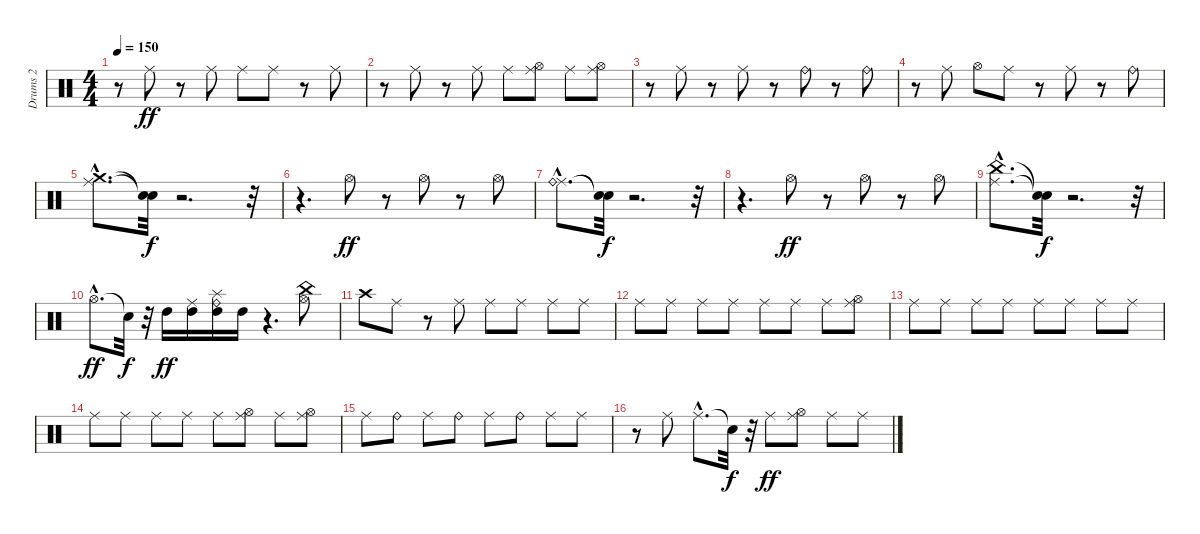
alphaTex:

\track ("Drums 2" "Drums 2") {instrument percussion}
\staff {score}
\articulation defaults
\ts (4 4)
\tempo 150
\clef neutral
\ks c
r.8{dy ff} "Ride (middle)".8 r.8 "Ride (middle)".8 "Ride (middle)".8 "Ride (middle)".8 r.8 "Ride (middle)".8 |
r.8 "Ride (middle)".8 r.8 "Ride (middle)".8 "Ride (middle)".8 ("Hi-Hat (open)" "Ride (middle)").8 "Ride (middle)".8 ("Hi-Hat (open)" "Ride (middle)").8 |
r.8 "Ride (middle)".8 r.8 "Ride (middle)".8 r.8 "Ride (bell)".8 r.8 "Ride (bell)".8 |
r.8 "Ride (middle)".8 "Hi-Hat (open)".8 "Ride (middle)".8 r.8 "Ride (middle)".8 r.8 "Ride (bell)".8 |
("Ride (middle)"{hac} "Crash medium (hit)"{hac}).8{d} ("Snare (hit)"{t} "Snare (hit)"{t}).32{dy f} r.2{d} r.32 |
r.4{d} "Hi-Hat (open)".8{dy ff} r.8 "Hi-Hat (open)".8 r.8 "Hi-Hat (open)".8 |
("Ride (middle)"{hac} "Ride (bell)"{hac}).8{d} ("Snare (hit)"{t} "Snare (hit)"{t}).32{dy f} r.2{d} r.32 |
r.4{d} "Hi-Hat (open)".8{dy ff} r.8 "Hi-Hat (open)".8 r.8 "Hi-Hat (open)".8 |
("Ride (middle)"{hac} "China (hit)"{hac}).8{d} ("Snare (hit)"{t} "Snare (hit)"{t}).32{dy f} r.2{d} r.32 |
"Hi-Hat (open)"{hac}.8{d dy ff} "Snare (hit)"{t}.32{dy f} r.32 "High Tom (hit)".16{dy ff} ("High Tom (hit)" "Ride (middle)").16 ("High Tom (hit)" "Ride (bell)" "Splash (hit)").16 "High Tom (hit)".16 r.4{d} ("Hi-Hat (open)" "China (hit)").8 |
"Crash high (hit)".8 "Ride (middle)".8 r.8 "Ride (middle)".8 "Ride (middle)".8 "Ride (middle)".8 "Ride (middle)".8 "Ride (middle)".8 |
"Ride (middle)".8 "Ride (middle)".8 "Ride (middle)".8 "Ride (middle)".8 "Ride (middle)".8 "Ride (middle)".8 "Ride (middle)".8 ("Hi-Hat (open)" "Ride (middle)").8 |
"Ride (middle)".8 "Ride (middle)".8 "Ride (middle)".8 "Ride (middle)".8 "Ride (middle)".8 "Ride (middle)".8 "Ride (middle)".8 "Ride (middle)".8 |
"Ride (middle)".8 "Ride (middle)".8 "Ride (middle)".8 "Ride (middle)".8 "Ride (middle)".8 ("Hi-Hat (open)" "Ride (middle)").8 "Ride (middle)".8 ("Hi-Hat (open)" "Ride (middle)").8 |
"Ride (middle)".8 "Ride (bell)".8 "Ride (middle)".8 "Ride (bell)".8 "Ride (middle)".8 "Ride (bell)".8 "Ride (middle)".8 "Ride (middle)".8 |
r.8 "Ride (middle)".8 "Ride (middle)"{hac}.8{d} "Snare (hit)"{t}.32{dy f} r.32 "Ride (middle)".8{dy ff} ("Hi-Hat (open)" "Ride (middle)").8 "Ride (middle)".8 "Ride (middle)".8
